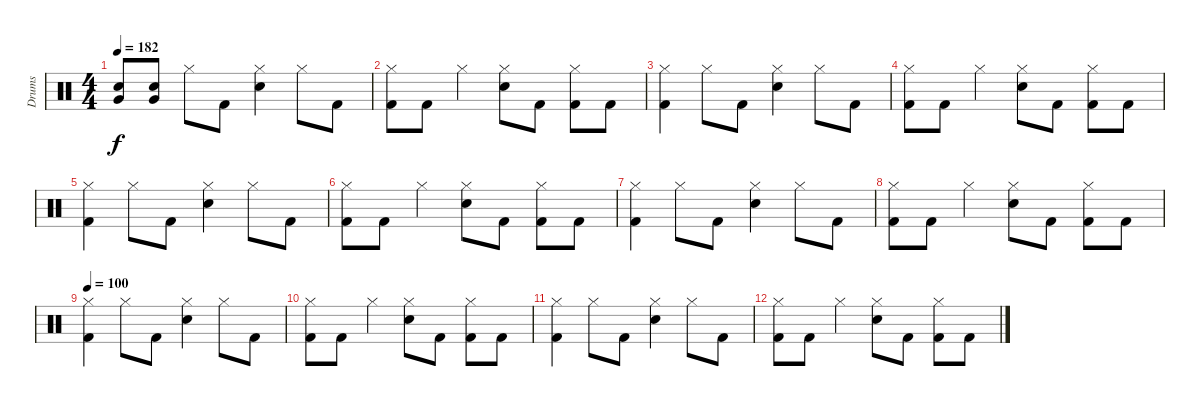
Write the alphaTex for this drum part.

\track ("Drums" "Drums") {instrument percussion}
\staff {score}
\articulation defaults
\ts (4 4)
\tempo 182
\clef neutral
\ks c
("Very Low Tom (hit)" "Electric Snare (hit)").8{dy f} ("Very Low Tom (hit)" "Electric Snare (hit)").8 "Hi-Hat (closed)".8{volume 6 balance 11} "Kick (hit) 2".8 ("Hi-Hat (closed)" "Electric Snare (hit)").4 "Hi-Hat (closed)".8 "Kick (hit) 2".8 |
("Hi-Hat (closed)" "Kick (hit) 2").8 "Kick (hit) 2".8 "Hi-Hat (closed)".4 ("Hi-Hat (closed)" "Electric Snare (hit)").8 "Kick (hit) 2".8 ("Hi-Hat (closed)" "Kick (hit) 2").8 "Kick (hit) 2".8 |
("Hi-Hat (closed)" "Kick (hit) 2").4 "Hi-Hat (closed)".8 "Kick (hit) 2".8 ("Hi-Hat (closed)" "Electric Snare (hit)").4 "Hi-Hat (closed)".8 "Kick (hit) 2".8 |
("Hi-Hat (closed)" "Kick (hit) 2").8 "Kick (hit) 2".8 "Hi-Hat (closed)".4 ("Hi-Hat (closed)" "Electric Snare (hit)").8 "Kick (hit) 2".8 ("Hi-Hat (closed)" "Kick (hit) 2").8 "Kick (hit) 2".8 |
("Hi-Hat (closed)" "Kick (hit) 2").4 "Hi-Hat (closed)".8 "Kick (hit) 2".8 ("Hi-Hat (closed)" "Electric Snare (hit)").4 "Hi-Hat (closed)".8 "Kick (hit) 2".8 |
("Hi-Hat (closed)" "Kick (hit) 2").8 "Kick (hit) 2".8 "Hi-Hat (closed)".4 ("Hi-Hat (closed)" "Electric Snare (hit)").8 "Kick (hit) 2".8 ("Hi-Hat (closed)" "Kick (hit) 2").8 "Kick (hit) 2".8 |
("Hi-Hat (closed)" "Kick (hit) 2").4 "Hi-Hat (closed)".8 "Kick (hit) 2".8 ("Hi-Hat (closed)" "Electric Snare (hit)").4 "Hi-Hat (closed)".8 "Kick (hit) 2".8 |
("Hi-Hat (closed)" "Kick (hit) 2").8 "Kick (hit) 2".8 "Hi-Hat (closed)".4 ("Hi-Hat (closed)" "Electric Snare (hit)").8 "Kick (hit) 2".8 ("Hi-Hat (closed)" "Kick (hit) 2").8 "Kick (hit) 2".8 |
\tempo 100
("Hi-Hat (closed)" "Kick (hit) 2").4 "Hi-Hat (closed)".8 "Kick (hit) 2".8 ("Hi-Hat (closed)" "Electric Snare (hit)").4 "Hi-Hat (closed)".8 "Kick (hit) 2".8 |
("Hi-Hat (closed)" "Kick (hit) 2").8 "Kick (hit) 2".8 "Hi-Hat (closed)".4 ("Hi-Hat (closed)" "Electric Snare (hit)").8 "Kick (hit) 2".8 ("Hi-Hat (closed)" "Kick (hit) 2").8 "Kick (hit) 2".8 |
("Hi-Hat (closed)" "Kick (hit) 2").4 "Hi-Hat (closed)".8 "Kick (hit) 2".8 ("Hi-Hat (closed)" "Electric Snare (hit)").4 "Hi-Hat (closed)".8 "Kick (hit) 2".8 |
("Hi-Hat (closed)" "Kick (hit) 2").8 "Kick (hit) 2".8 "Hi-Hat (closed)".4 ("Hi-Hat (closed)" "Electric Snare (hit)").8 "Kick (hit) 2".8 ("Hi-Hat (closed)" "Kick (hit) 2").8 "Kick (hit) 2".8
